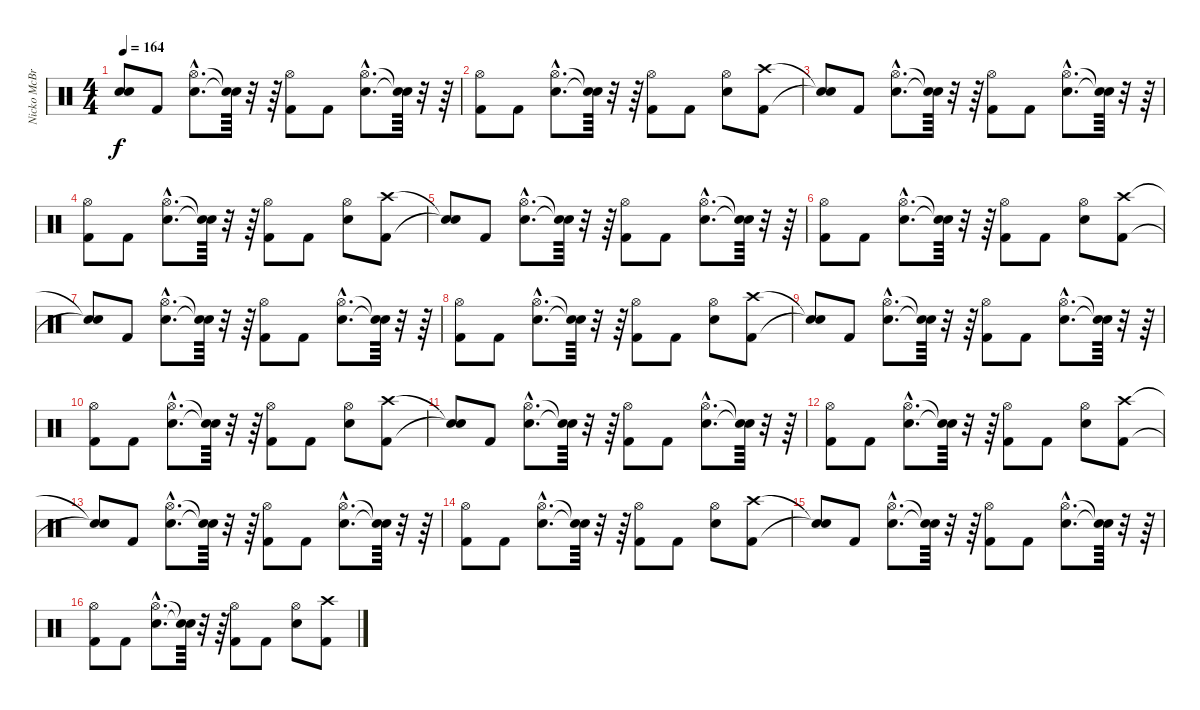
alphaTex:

\track ("Nicko McBrian (Drums)" "Nicko McBr") {instrument percussion}
\staff {score}
\articulation defaults
\ts (4 4)
\tempo 164
\clef neutral
\ks c
("Snare (hit)"{t} "Snare (hit)"{t}).8{dy f} "Kick (hit) 2".8 ("Snare (hit) 2"{hac} "Hi-Hat (open)"{hac}).8{d} ("Snare (hit)"{t} "Snare (hit)"{t}).64 r.32 r.64 ("Kick (hit) 2" "Hi-Hat (open)").8 "Kick (hit) 2".8 ("Snare (hit) 2"{hac} "Hi-Hat (open)"{hac}).8{d} ("Snare (hit)"{t} "Snare (hit)"{t}).64 r.32 r.64 |
("Kick (hit) 2" "Hi-Hat (open)").8 "Kick (hit) 2".8 ("Snare (hit) 2"{hac} "Hi-Hat (open)"{hac}).8{d} ("Snare (hit)"{t} "Snare (hit)"{t}).64 r.32 r.64 ("Kick (hit) 2" "Hi-Hat (open)").8 "Kick (hit) 2".8 ("Snare (hit) 2" "Hi-Hat (open)").8 ("Kick (hit) 2" "Crash high (hit)").8 |
("Snare (hit)"{t} "Snare (hit)"{t}).8 "Kick (hit) 2".8 ("Snare (hit) 2"{hac} "Hi-Hat (open)"{hac}).8{d} ("Snare (hit)"{t} "Snare (hit)"{t}).64 r.32 r.64 ("Kick (hit) 2" "Hi-Hat (open)").8 "Kick (hit) 2".8 ("Snare (hit) 2"{hac} "Hi-Hat (open)"{hac}).8{d} ("Snare (hit)"{t} "Snare (hit)"{t}).64 r.32 r.64 |
("Kick (hit) 2" "Hi-Hat (open)").8 "Kick (hit) 2".8 ("Snare (hit) 2"{hac} "Hi-Hat (open)"{hac}).8{d} ("Snare (hit)"{t} "Snare (hit)"{t}).64 r.32 r.64 ("Kick (hit) 2" "Hi-Hat (open)").8 "Kick (hit) 2".8 ("Snare (hit) 2" "Hi-Hat (open)").8 ("Kick (hit) 2" "Crash high (hit)").8 |
("Snare (hit)"{t} "Snare (hit)"{t}).8 "Kick (hit) 2".8 ("Snare (hit) 2"{hac} "Hi-Hat (open)"{hac}).8{d} ("Snare (hit)"{t} "Snare (hit)"{t}).64 r.32 r.64 ("Kick (hit) 2" "Hi-Hat (open)").8 "Kick (hit) 2".8 ("Snare (hit) 2"{hac} "Hi-Hat (open)"{hac}).8{d} ("Snare (hit)"{t} "Snare (hit)"{t}).64 r.32 r.64 |
("Kick (hit) 2" "Hi-Hat (open)").8 "Kick (hit) 2".8 ("Snare (hit) 2"{hac} "Hi-Hat (open)"{hac}).8{d} ("Snare (hit)"{t} "Snare (hit)"{t}).64 r.32 r.64 ("Kick (hit) 2" "Hi-Hat (open)").8 "Kick (hit) 2".8 ("Snare (hit) 2" "Hi-Hat (open)").8 ("Kick (hit) 2" "Crash high (hit)").8 |
("Snare (hit)"{t} "Snare (hit)"{t}).8 "Kick (hit) 2".8 ("Snare (hit) 2"{hac} "Hi-Hat (open)"{hac}).8{d} ("Snare (hit)"{t} "Snare (hit)"{t}).64 r.32 r.64 ("Kick (hit) 2" "Hi-Hat (open)").8 "Kick (hit) 2".8 ("Snare (hit) 2"{hac} "Hi-Hat (open)"{hac}).8{d} ("Snare (hit)"{t} "Snare (hit)"{t}).64 r.32 r.64 |
("Kick (hit) 2" "Hi-Hat (open)").8 "Kick (hit) 2".8 ("Snare (hit) 2"{hac} "Hi-Hat (open)"{hac}).8{d} ("Snare (hit)"{t} "Snare (hit)"{t}).64 r.32 r.64 ("Kick (hit) 2" "Hi-Hat (open)").8 "Kick (hit) 2".8 ("Snare (hit) 2" "Hi-Hat (open)").8 ("Kick (hit) 2" "Crash high (hit)").8 |
("Snare (hit)"{t} "Snare (hit)"{t}).8 "Kick (hit) 2".8 ("Snare (hit) 2"{hac} "Hi-Hat (open)"{hac}).8{d} ("Snare (hit)"{t} "Snare (hit)"{t}).64 r.32 r.64 ("Kick (hit) 2" "Hi-Hat (open)").8 "Kick (hit) 2".8 ("Snare (hit) 2"{hac} "Hi-Hat (open)"{hac}).8{d} ("Snare (hit)"{t} "Snare (hit)"{t}).64 r.32 r.64 |
("Kick (hit) 2" "Hi-Hat (open)").8 "Kick (hit) 2".8 ("Snare (hit) 2"{hac} "Hi-Hat (open)"{hac}).8{d} ("Snare (hit)"{t} "Snare (hit)"{t}).64 r.32 r.64 ("Kick (hit) 2" "Hi-Hat (open)").8 "Kick (hit) 2".8 ("Snare (hit) 2" "Hi-Hat (open)").8 ("Kick (hit) 2" "Crash high (hit)").8 |
("Snare (hit)"{t} "Snare (hit)"{t}).8 "Kick (hit) 2".8 ("Snare (hit) 2"{hac} "Hi-Hat (open)"{hac}).8{d} ("Snare (hit)"{t} "Snare (hit)"{t}).64 r.32 r.64 ("Kick (hit) 2" "Hi-Hat (open)").8 "Kick (hit) 2".8 ("Snare (hit) 2"{hac} "Hi-Hat (open)"{hac}).8{d} ("Snare (hit)"{t} "Snare (hit)"{t}).64 r.32 r.64 |
("Kick (hit) 2" "Hi-Hat (open)").8 "Kick (hit) 2".8 ("Snare (hit) 2"{hac} "Hi-Hat (open)"{hac}).8{d} ("Snare (hit)"{t} "Snare (hit)"{t}).64 r.32 r.64 ("Kick (hit) 2" "Hi-Hat (open)").8 "Kick (hit) 2".8 ("Snare (hit) 2" "Hi-Hat (open)").8 ("Kick (hit) 2" "Crash high (hit)").8 |
("Snare (hit)"{t} "Snare (hit)"{t}).8 "Kick (hit) 2".8 ("Snare (hit) 2"{hac} "Hi-Hat (open)"{hac}).8{d} ("Snare (hit)"{t} "Snare (hit)"{t}).64 r.32 r.64 ("Kick (hit) 2" "Hi-Hat (open)").8 "Kick (hit) 2".8 ("Snare (hit) 2"{hac} "Hi-Hat (open)"{hac}).8{d} ("Snare (hit)"{t} "Snare (hit)"{t}).64 r.32 r.64 |
("Kick (hit) 2" "Hi-Hat (open)").8 "Kick (hit) 2".8 ("Snare (hit) 2"{hac} "Hi-Hat (open)"{hac}).8{d} ("Snare (hit)"{t} "Snare (hit)"{t}).64 r.32 r.64 ("Kick (hit) 2" "Hi-Hat (open)").8 "Kick (hit) 2".8 ("Snare (hit) 2" "Hi-Hat (open)").8 ("Kick (hit) 2" "Crash high (hit)").8 |
("Snare (hit)"{t} "Snare (hit)"{t}).8 "Kick (hit) 2".8 ("Snare (hit) 2"{hac} "Hi-Hat (open)"{hac}).8{d} ("Snare (hit)"{t} "Snare (hit)"{t}).64 r.32 r.64 ("Kick (hit) 2" "Hi-Hat (open)").8 "Kick (hit) 2".8 ("Snare (hit) 2"{hac} "Hi-Hat (open)"{hac}).8{d} ("Snare (hit)"{t} "Snare (hit)"{t}).64 r.32 r.64 |
("Kick (hit) 2" "Hi-Hat (open)").8 "Kick (hit) 2".8 ("Snare (hit) 2"{hac} "Hi-Hat (open)"{hac}).8{d} ("Snare (hit)"{t} "Snare (hit)"{t}).64 r.32 r.64 ("Kick (hit) 2" "Hi-Hat (open)").8 "Kick (hit) 2".8 ("Snare (hit) 2" "Hi-Hat (open)").8 ("Kick (hit) 2" "Crash high (hit)").8
